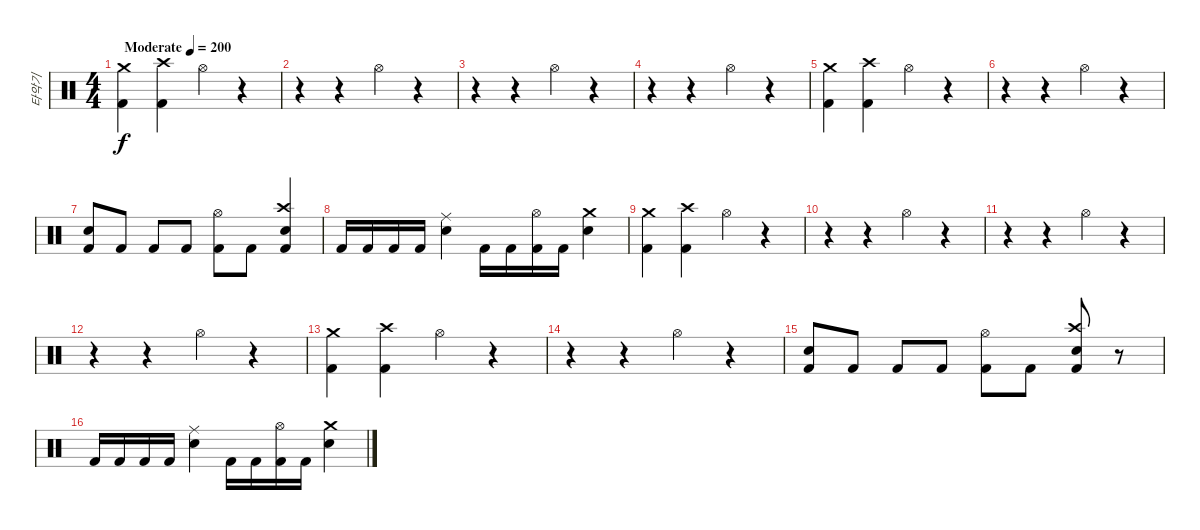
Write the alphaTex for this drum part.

\track ("타악기" "타악기") {instrument percussion}
\staff {score}
\articulation defaults
\ts (4 4)
\tempo (200 "Moderate")
\clef neutral
\ks c
("Crash medium (hit)" "Kick (hit) 2").4{dy f} ("Crash high (hit)" "Kick (hit) 2").4 "Hi-Hat (open)".4 r.4 |
r.4 r.4 "Hi-Hat (open)".4 r.4 |
r.4 r.4 "Hi-Hat (open)".4 r.4 |
r.4 r.4 "Hi-Hat (open)".4 r.4 |
("Crash medium (hit)" "Kick (hit) 2").4 ("Crash high (hit)" "Kick (hit) 2").4 "Hi-Hat (open)".4 r.4 |
r.4 r.4 "Hi-Hat (open)".4 r.4 |
("Snare (hit) 2" "Kick (hit) 2").8 "Kick (hit) 2".8 "Kick (hit) 2".8 "Kick (hit) 2".8 ("Hi-Hat (open)" "Kick (hit) 2").8 "Kick (hit) 2".8 ("Crash high (hit)" "Snare (hit) 2" "Kick (hit) 2").4 |
"Kick (hit) 2".16 "Kick (hit) 2".16 "Kick (hit) 2".16 "Kick (hit) 2".16 ("Ride (middle)" "Snare (hit) 2").4 "Kick (hit) 2".16 "Kick (hit) 2".16 ("Hi-Hat (open)" "Kick (hit) 2").16 "Kick (hit) 2".16 ("Crash medium (hit)" "Snare (hit) 2").4 |
("Crash medium (hit)" "Kick (hit) 2").4 ("Crash high (hit)" "Kick (hit) 2").4 "Hi-Hat (open)".4 r.4 |
r.4 r.4 "Hi-Hat (open)".4 r.4 |
r.4 r.4 "Hi-Hat (open)".4 r.4 |
r.4 r.4 "Hi-Hat (open)".4 r.4 |
("Crash medium (hit)" "Kick (hit) 2").4 ("Crash high (hit)" "Kick (hit) 2").4 "Hi-Hat (open)".4 r.4 |
r.4 r.4 "Hi-Hat (open)".4 r.4 |
("Snare (hit) 2" "Kick (hit) 2").8 "Kick (hit) 2".8 "Kick (hit) 2".8 "Kick (hit) 2".8 ("Hi-Hat (open)" "Kick (hit) 2").8 "Kick (hit) 2".8 ("Crash high (hit)" "Snare (hit) 2" "Kick (hit) 2").8 r.8 |
"Kick (hit) 2".16 "Kick (hit) 2".16 "Kick (hit) 2".16 "Kick (hit) 2".16 ("Ride (middle)" "Snare (hit) 2").4 "Kick (hit) 2".16 "Kick (hit) 2".16 ("Hi-Hat (open)" "Kick (hit) 2").16 "Kick (hit) 2".16 ("Crash medium (hit)" "Snare (hit) 2").4
